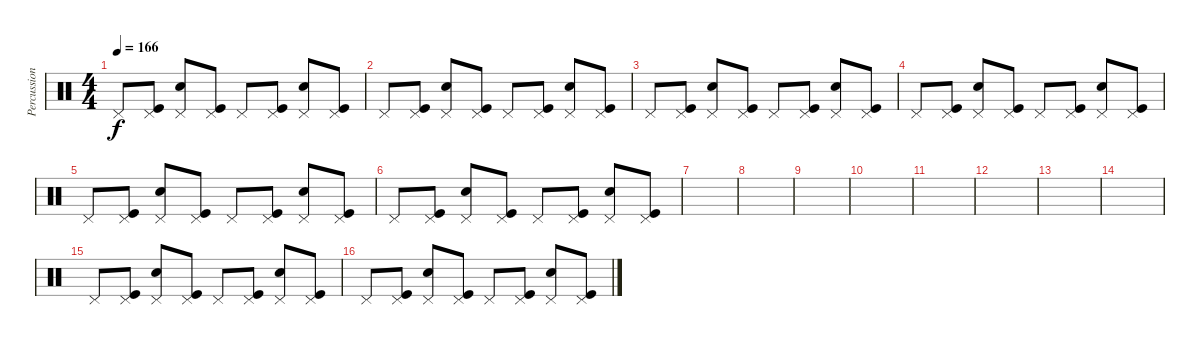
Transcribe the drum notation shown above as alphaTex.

\track ("Percussions" "Percussion") {instrument percussion}
\staff {score}
\articulation defaults
\ts (4 4)
\tempo 166
\clef neutral
\ks c "Pedal Hi-Hat (hit)".8{dy f}
("Pedal Hi-Hat (hit)" "Kick (hit)").8 ("Pedal Hi-Hat (hit)" "Snare (hit) 2").8 ("Pedal Hi-Hat (hit)" "Kick (hit)").8 "Pedal Hi-Hat (hit)".8 ("Pedal Hi-Hat (hit)" "Kick (hit)").8 ("Pedal Hi-Hat (hit)" "Snare (hit) 2").8 ("Pedal Hi-Hat (hit)" "Kick (hit)").8 |
"Pedal Hi-Hat (hit)".8 ("Pedal Hi-Hat (hit)" "Kick (hit)").8 ("Pedal Hi-Hat (hit)" "Snare (hit) 2").8 ("Pedal Hi-Hat (hit)" "Kick (hit)").8 "Pedal Hi-Hat (hit)".8 ("Pedal Hi-Hat (hit)" "Kick (hit)").8 ("Pedal Hi-Hat (hit)" "Snare (hit) 2").8 ("Pedal Hi-Hat (hit)" "Kick (hit)").8 |
"Pedal Hi-Hat (hit)".8 ("Pedal Hi-Hat (hit)" "Kick (hit)").8 ("Pedal Hi-Hat (hit)" "Snare (hit) 2").8 ("Pedal Hi-Hat (hit)" "Kick (hit)").8 "Pedal Hi-Hat (hit)".8 ("Pedal Hi-Hat (hit)" "Kick (hit)").8 ("Pedal Hi-Hat (hit)" "Snare (hit) 2").8 ("Pedal Hi-Hat (hit)" "Kick (hit)").8 |
"Pedal Hi-Hat (hit)".8 ("Pedal Hi-Hat (hit)" "Kick (hit)").8 ("Pedal Hi-Hat (hit)" "Snare (hit) 2").8 ("Pedal Hi-Hat (hit)" "Kick (hit)").8 "Pedal Hi-Hat (hit)".8 ("Pedal Hi-Hat (hit)" "Kick (hit)").8 ("Pedal Hi-Hat (hit)" "Snare (hit) 2").8 ("Pedal Hi-Hat (hit)" "Kick (hit)").8 |
"Pedal Hi-Hat (hit)".8 ("Pedal Hi-Hat (hit)" "Kick (hit)").8 ("Pedal Hi-Hat (hit)" "Snare (hit) 2").8 ("Pedal Hi-Hat (hit)" "Kick (hit)").8 "Pedal Hi-Hat (hit)".8 ("Pedal Hi-Hat (hit)" "Kick (hit)").8 ("Pedal Hi-Hat (hit)" "Snare (hit) 2").8 ("Pedal Hi-Hat (hit)" "Kick (hit)").8 |
"Pedal Hi-Hat (hit)".8 ("Pedal Hi-Hat (hit)" "Kick (hit)").8 ("Pedal Hi-Hat (hit)" "Snare (hit) 2").8 ("Pedal Hi-Hat (hit)" "Kick (hit)").8 "Pedal Hi-Hat (hit)".8 ("Pedal Hi-Hat (hit)" "Kick (hit)").8 ("Pedal Hi-Hat (hit)" "Snare (hit) 2").8 ("Pedal Hi-Hat (hit)" "Kick (hit)").8 |
|
|
|
|
|
|
|
|
"Pedal Hi-Hat (hit)".8 ("Pedal Hi-Hat (hit)" "Kick (hit)").8 ("Pedal Hi-Hat (hit)" "Snare (hit) 2").8 ("Pedal Hi-Hat (hit)" "Kick (hit)").8 "Pedal Hi-Hat (hit)".8 ("Pedal Hi-Hat (hit)" "Kick (hit)").8 ("Pedal Hi-Hat (hit)" "Snare (hit) 2").8 ("Pedal Hi-Hat (hit)" "Kick (hit)").8 |
"Pedal Hi-Hat (hit)".8 ("Pedal Hi-Hat (hit)" "Kick (hit)").8 ("Pedal Hi-Hat (hit)" "Snare (hit) 2").8 ("Pedal Hi-Hat (hit)" "Kick (hit)").8 "Pedal Hi-Hat (hit)".8 ("Pedal Hi-Hat (hit)" "Kick (hit)").8 ("Pedal Hi-Hat (hit)" "Snare (hit) 2").8 ("Pedal Hi-Hat (hit)" "Kick (hit)").8
